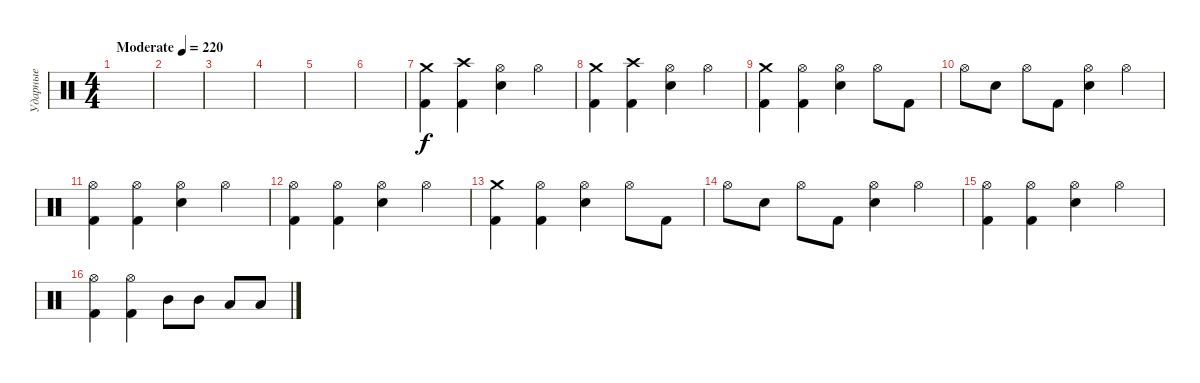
\track ("Ударные" "Ударные") {instrument percussion}
\staff {score}
\articulation defaults
\ts (4 4)
\tempo (220 "Moderate")
\clef neutral
\ks c
|
|
|
|
|
|
("Crash medium (hit)" "Kick (hit) 2").4 ("Crash high (hit)" "Kick (hit) 2").4 ("Hi-Hat (open)" "Electric Snare (hit)").4 "Hi-Hat (open)".4 |
("Crash medium (hit)" "Kick (hit) 2").4 ("Crash high (hit)" "Kick (hit) 2").4 ("Hi-Hat (open)" "Electric Snare (hit)").4 "Hi-Hat (open)".4 |
("Crash medium (hit)" "Kick (hit) 2").4 ("Hi-Hat (open)" "Kick (hit) 2").4 ("Hi-Hat (open)" "Electric Snare (hit)").4 "Hi-Hat (open)".8 "Kick (hit) 2".8 |
"Hi-Hat (open)".8 "Electric Snare (hit)".8 "Hi-Hat (open)".8 "Kick (hit) 2".8 ("Hi-Hat (open)" "Electric Snare (hit)").4 "Hi-Hat (open)".4 |
("Hi-Hat (open)" "Kick (hit) 2").4 ("Hi-Hat (open)" "Kick (hit) 2").4 ("Hi-Hat (open)" "Electric Snare (hit)").4 "Hi-Hat (open)".4 |
("Hi-Hat (open)" "Kick (hit) 2").4 ("Hi-Hat (open)" "Kick (hit) 2").4 ("Hi-Hat (open)" "Electric Snare (hit)").4 "Hi-Hat (open)".4 |
("Crash medium (hit)" "Kick (hit) 2").4 ("Hi-Hat (open)" "Kick (hit) 2").4 ("Hi-Hat (open)" "Electric Snare (hit)").4 "Hi-Hat (open)".8 "Kick (hit) 2".8 |
"Hi-Hat (open)".8 "Electric Snare (hit)".8 "Hi-Hat (open)".8 "Kick (hit) 2".8 ("Hi-Hat (open)" "Electric Snare (hit)").4 "Hi-Hat (open)".4 |
("Hi-Hat (open)" "Kick (hit) 2").4 ("Hi-Hat (open)" "Kick (hit) 2").4 ("Hi-Hat (open)" "Electric Snare (hit)").4 "Hi-Hat (open)".4 |
("Hi-Hat (open)" "Kick (hit) 2").4 ("Hi-Hat (open)" "Kick (hit) 2").4 "Mid Tom (hit)".8 "Mid Tom (hit)".8 "Low Tom (hit)".8 "Low Tom (hit)".8
